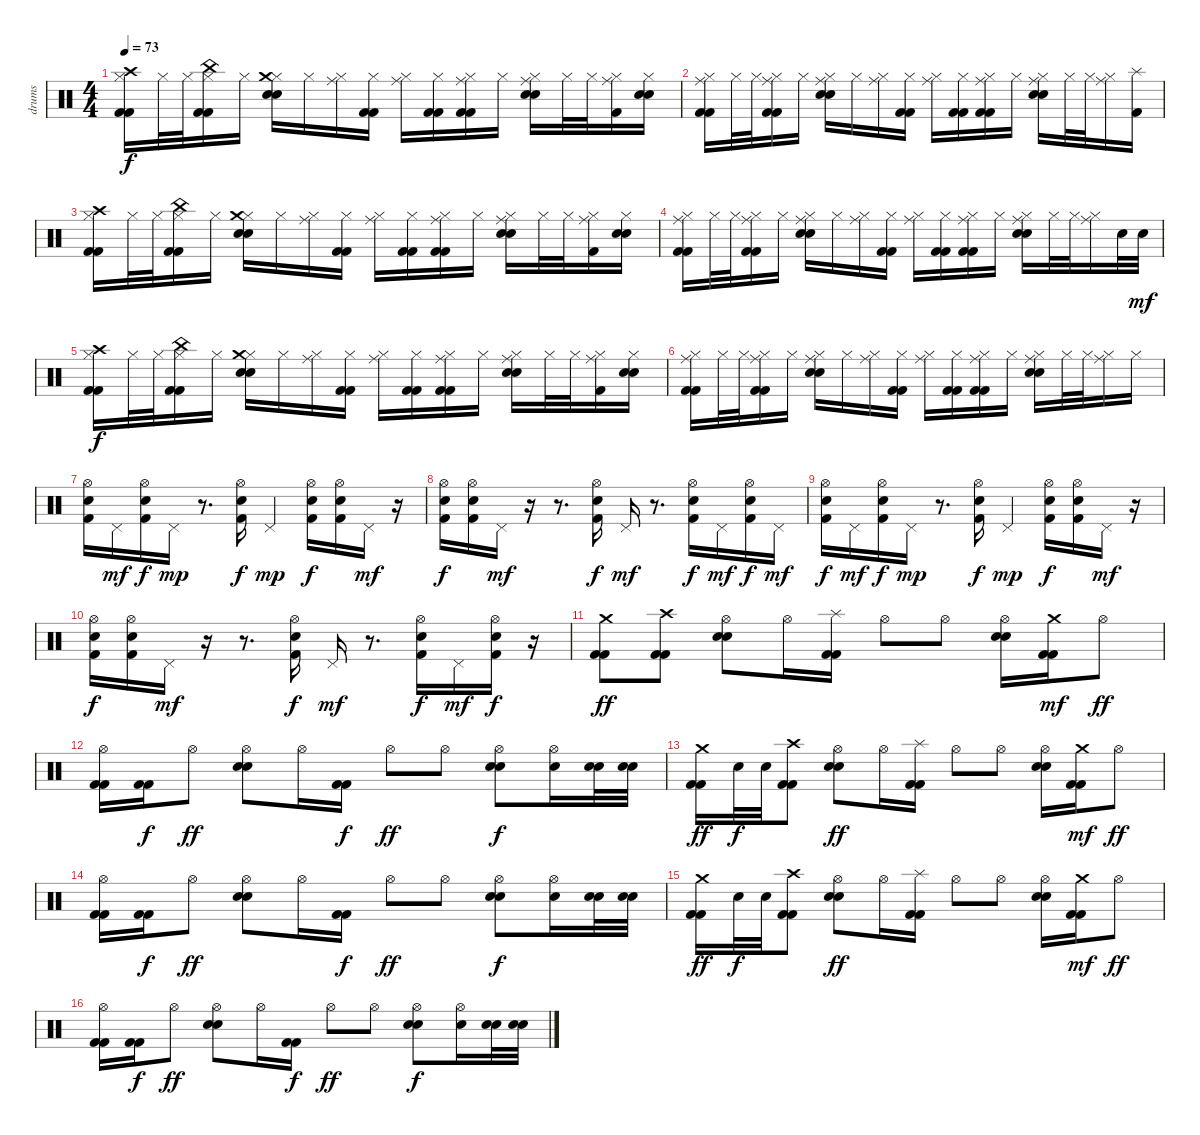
\track ("drums" "drums") {instrument percussion}
\staff {score}
\articulation defaults
\ts (4 4)
\tempo 73
\clef neutral
\ks c
("Hi-Hat (closed)" "Crash high (hit)" "Kick (hit) 2" "Kick (hit) 2").16{dy f} "Hi-Hat (closed)".32 "Hi-Hat (closed)".32 ("Hi-Hat (closed)" "China (hit)" "Kick (hit) 2" "Kick (hit) 2").16 "Hi-Hat (closed)".16 ("Hi-Hat (closed)" "Crash medium (hit)" "Electric Snare (hit)" "Electric Snare (hit)").16 "Hi-Hat (closed)".16 ("Hi-Hat (closed)" "Ride (middle)").16 ("Hi-Hat (closed)" "Kick (hit) 2" "Kick (hit) 2").16 ("Hi-Hat (closed)" "Ride (middle)").16 ("Hi-Hat (closed)" "Kick (hit) 2" "Kick (hit) 2").16 ("Hi-Hat (closed)" "Ride (middle)" "Kick (hit) 2" "Kick (hit) 2").16 "Hi-Hat (closed)".16 ("Hi-Hat (closed)" "Ride (middle)" "Electric Snare (hit)" "Electric Snare (hit)").16 "Hi-Hat (closed)".32 "Hi-Hat (closed)".32 ("Hi-Hat (closed)" "Ride (middle)" "Kick (hit) 2").16 ("Hi-Hat (closed)" "Electric Snare (hit)" "Electric Snare (hit)").16 |
("Hi-Hat (closed)" "Ride (middle)" "Kick (hit) 2" "Kick (hit) 2").16 "Hi-Hat (closed)".32 "Hi-Hat (closed)".32 ("Hi-Hat (closed)" "Ride (middle)" "Kick (hit) 2" "Kick (hit) 2").16 "Hi-Hat (closed)".16 ("Hi-Hat (closed)" "Ride (middle)" "Electric Snare (hit)" "Electric Snare (hit)").16 "Hi-Hat (closed)".16 ("Hi-Hat (closed)" "Ride (middle)").16 ("Hi-Hat (closed)" "Kick (hit) 2" "Kick (hit) 2").16 ("Hi-Hat (closed)" "Ride (middle)").16 ("Hi-Hat (closed)" "Kick (hit) 2" "Kick (hit) 2").16 ("Hi-Hat (closed)" "Ride (middle)" "Kick (hit) 2" "Kick (hit) 2").16 "Hi-Hat (closed)".16 ("Hi-Hat (closed)" "Ride (middle)" "Electric Snare (hit)" "Electric Snare (hit)").16 "Hi-Hat (closed)".32 "Hi-Hat (closed)".32 ("Hi-Hat (closed)" "Ride (middle)").16 ("Splash (hit)" "Kick (hit) 2").16 |
("Hi-Hat (closed)" "Crash high (hit)" "Kick (hit) 2" "Kick (hit) 2").16 "Hi-Hat (closed)".32 "Hi-Hat (closed)".32 ("Hi-Hat (closed)" "China (hit)" "Kick (hit) 2" "Kick (hit) 2").16 "Hi-Hat (closed)".16 ("Hi-Hat (closed)" "Crash medium (hit)" "Electric Snare (hit)" "Electric Snare (hit)").16 "Hi-Hat (closed)".16 ("Hi-Hat (closed)" "Ride (middle)").16 ("Hi-Hat (closed)" "Kick (hit) 2" "Kick (hit) 2").16 ("Hi-Hat (closed)" "Ride (middle)").16 ("Hi-Hat (closed)" "Kick (hit) 2" "Kick (hit) 2").16 ("Hi-Hat (closed)" "Ride (middle)" "Kick (hit) 2" "Kick (hit) 2").16 "Hi-Hat (closed)".16 ("Hi-Hat (closed)" "Ride (middle)" "Electric Snare (hit)" "Electric Snare (hit)").16 "Hi-Hat (closed)".32 "Hi-Hat (closed)".32 ("Hi-Hat (closed)" "Ride (middle)" "Kick (hit) 2").16 ("Hi-Hat (closed)" "Electric Snare (hit)" "Electric Snare (hit)").16 |
("Hi-Hat (closed)" "Ride (middle)" "Kick (hit) 2" "Kick (hit) 2").16 "Hi-Hat (closed)".32 "Hi-Hat (closed)".32 ("Hi-Hat (closed)" "Ride (middle)" "Kick (hit) 2" "Kick (hit) 2").16 "Hi-Hat (closed)".16 ("Hi-Hat (closed)" "Ride (middle)" "Electric Snare (hit)" "Electric Snare (hit)").16 "Hi-Hat (closed)".16 ("Hi-Hat (closed)" "Ride (middle)").16 ("Hi-Hat (closed)" "Kick (hit) 2" "Kick (hit) 2").16 ("Hi-Hat (closed)" "Ride (middle)").16 ("Hi-Hat (closed)" "Kick (hit) 2" "Kick (hit) 2").16 ("Hi-Hat (closed)" "Ride (middle)" "Kick (hit) 2" "Kick (hit) 2").16 "Hi-Hat (closed)".16 ("Hi-Hat (closed)" "Ride (middle)" "Electric Snare (hit)" "Electric Snare (hit)").16 "Hi-Hat (closed)".32 "Hi-Hat (closed)".32 ("Hi-Hat (closed)" "Ride (middle)").16 "Electric Snare (hit)".32 "Electric Snare (hit)".32{dy mf} |
("Hi-Hat (closed)" "Crash high (hit)" "Kick (hit) 2" "Kick (hit) 2").16{dy f} "Hi-Hat (closed)".32 "Hi-Hat (closed)".32 ("Hi-Hat (closed)" "China (hit)" "Kick (hit) 2" "Kick (hit) 2").16 "Hi-Hat (closed)".16 ("Hi-Hat (closed)" "Crash medium (hit)" "Electric Snare (hit)" "Electric Snare (hit)").16 "Hi-Hat (closed)".16 ("Hi-Hat (closed)" "Ride (middle)").16 ("Hi-Hat (closed)" "Kick (hit) 2" "Kick (hit) 2").16 ("Hi-Hat (closed)" "Ride (middle)").16 ("Hi-Hat (closed)" "Kick (hit) 2" "Kick (hit) 2").16 ("Hi-Hat (closed)" "Ride (middle)" "Kick (hit) 2" "Kick (hit) 2").16 "Hi-Hat (closed)".16 ("Hi-Hat (closed)" "Ride (middle)" "Electric Snare (hit)" "Electric Snare (hit)").16 "Hi-Hat (closed)".32 "Hi-Hat (closed)".32 ("Hi-Hat (closed)" "Ride (middle)" "Kick (hit) 2").16 ("Hi-Hat (closed)" "Electric Snare (hit)" "Electric Snare (hit)").16 |
("Hi-Hat (closed)" "Ride (middle)" "Kick (hit) 2" "Kick (hit) 2").16 "Hi-Hat (closed)".32 "Hi-Hat (closed)".32 ("Hi-Hat (closed)" "Ride (middle)" "Kick (hit) 2" "Kick (hit) 2").16 "Hi-Hat (closed)".16 ("Hi-Hat (closed)" "Ride (middle)" "Electric Snare (hit)" "Electric Snare (hit)").16 "Hi-Hat (closed)".16 ("Hi-Hat (closed)" "Ride (middle)").16 ("Hi-Hat (closed)" "Kick (hit) 2" "Kick (hit) 2").16 ("Hi-Hat (closed)" "Ride (middle)").16 ("Hi-Hat (closed)" "Kick (hit) 2" "Kick (hit) 2").16 ("Hi-Hat (closed)" "Ride (middle)" "Kick (hit) 2" "Kick (hit) 2").16 "Hi-Hat (closed)".16 ("Hi-Hat (closed)" "Ride (middle)" "Electric Snare (hit)" "Electric Snare (hit)").16 "Hi-Hat (closed)".32 "Hi-Hat (closed)".32 ("Hi-Hat (closed)" "Ride (middle)").16 "Hi-Hat (closed)".16 |
("Hi-Hat (open)" "Electric Snare (hit)" "Kick (hit) 2").16 "Pedal Hi-Hat (hit)".16{dy mf} ("Hi-Hat (open)" "Electric Snare (hit)" "Kick (hit) 2").16{dy f} "Pedal Hi-Hat (hit)".16{dy mp} r.8{d} ("Hi-Hat (open)" "Electric Snare (hit)" "Kick (hit) 2").16{dy f} "Pedal Hi-Hat (hit)".4{dy mp} ("Hi-Hat (open)" "Electric Snare (hit)" "Kick (hit) 2").16{dy f} ("Hi-Hat (open)" "Electric Snare (hit)" "Kick (hit) 2").16 "Pedal Hi-Hat (hit)".16{dy mf} r.16 |
("Hi-Hat (open)" "Electric Snare (hit)" "Kick (hit) 2").16{dy f} ("Hi-Hat (open)" "Electric Snare (hit)" "Kick (hit) 2").16 "Pedal Hi-Hat (hit)".16{dy mf} r.16 r.8{d} ("Hi-Hat (open)" "Electric Snare (hit)" "Kick (hit) 2").16{dy f} "Pedal Hi-Hat (hit)".16{dy mf} r.8{d} ("Hi-Hat (open)" "Electric Snare (hit)" "Kick (hit) 2").16{dy f} "Pedal Hi-Hat (hit)".16{dy mf} ("Hi-Hat (open)" "Electric Snare (hit)" "Kick (hit) 2").16{dy f} "Pedal Hi-Hat (hit)".16{dy mf} |
("Hi-Hat (open)" "Electric Snare (hit)" "Kick (hit) 2").16{dy f} "Pedal Hi-Hat (hit)".16{dy mf} ("Hi-Hat (open)" "Electric Snare (hit)" "Kick (hit) 2").16{dy f} "Pedal Hi-Hat (hit)".16{dy mp} r.8{d} ("Hi-Hat (open)" "Electric Snare (hit)" "Kick (hit) 2").16{dy f} "Pedal Hi-Hat (hit)".4{dy mp} ("Hi-Hat (open)" "Electric Snare (hit)" "Kick (hit) 2").16{dy f} ("Hi-Hat (open)" "Electric Snare (hit)" "Kick (hit) 2").16 "Pedal Hi-Hat (hit)".16{dy mf} r.16 |
("Hi-Hat (open)" "Electric Snare (hit)" "Kick (hit) 2").16{dy f} ("Hi-Hat (open)" "Electric Snare (hit)" "Kick (hit) 2").16 "Pedal Hi-Hat (hit)".16{dy mf} r.16 r.8{d} ("Hi-Hat (open)" "Electric Snare (hit)" "Kick (hit) 2").16{dy f} "Pedal Hi-Hat (hit)".16{dy mf} r.8{d} ("Hi-Hat (open)" "Electric Snare (hit)" "Kick (hit) 2").16{dy f} "Pedal Hi-Hat (hit)".16{dy mf} ("Hi-Hat (open)" "Electric Snare (hit)" "Kick (hit) 2").16{dy f} r.16 |
("Crash medium (hit)" "Kick (hit) 2" "Kick (hit) 2").8{dy ff} ("Crash high (hit)" "Kick (hit) 2" "Kick (hit) 2").8 ("Hi-Hat (open)" "Electric Snare (hit)" "Electric Snare (hit)").8 "Hi-Hat (open)".16 ("Splash (hit)" "Kick (hit) 2" "Kick (hit) 2").16 "Hi-Hat (open)".8 "Hi-Hat (open)".8 ("Hi-Hat (open)" "Electric Snare (hit)" "Electric Snare (hit)").16 ("Crash medium (hit)" "Kick (hit) 2" "Kick (hit) 2").16{dy mf} "Hi-Hat (open)".8{dy ff} |
("Hi-Hat (open)" "Kick (hit) 2" "Kick (hit) 2").16 ("Kick (hit) 2" "Kick (hit) 2").16{dy f} "Hi-Hat (open)".8{dy ff} ("Hi-Hat (open)" "Electric Snare (hit)" "Electric Snare (hit)").8 "Hi-Hat (open)".16 ("Kick (hit) 2" "Kick (hit) 2").16{dy f} "Hi-Hat (open)".8{dy ff} "Hi-Hat (open)".8 ("Hi-Hat (open)" "Electric Snare (hit)" "Electric Snare (hit)").8{dy f} ("Hi-Hat (open)" "Electric Snare (hit)").16 ("Electric Snare (hit)" "Electric Snare (hit)").32 ("Electric Snare (hit)" "Electric Snare (hit)").32 |
("Crash medium (hit)" "Kick (hit) 2" "Kick (hit) 2").16{dy ff} "Electric Snare (hit)".32{dy f} "Electric Snare (hit)".32 ("Crash high (hit)" "Kick (hit) 2" "Kick (hit) 2").8 ("Hi-Hat (open)" "Electric Snare (hit)" "Electric Snare (hit)").8{dy ff} "Hi-Hat (open)".16 ("Splash (hit)" "Kick (hit) 2" "Kick (hit) 2").16 "Hi-Hat (open)".8 "Hi-Hat (open)".8 ("Hi-Hat (open)" "Electric Snare (hit)" "Electric Snare (hit)").16 ("Crash medium (hit)" "Kick (hit) 2" "Kick (hit) 2").16{dy mf} "Hi-Hat (open)".8{dy ff} |
("Hi-Hat (open)" "Kick (hit) 2" "Kick (hit) 2").16 ("Kick (hit) 2" "Kick (hit) 2").16{dy f} "Hi-Hat (open)".8{dy ff} ("Hi-Hat (open)" "Electric Snare (hit)" "Electric Snare (hit)").8 "Hi-Hat (open)".16 ("Kick (hit) 2" "Kick (hit) 2").16{dy f} "Hi-Hat (open)".8{dy ff} "Hi-Hat (open)".8 ("Hi-Hat (open)" "Electric Snare (hit)" "Electric Snare (hit)").8{dy f} ("Hi-Hat (open)" "Electric Snare (hit)").16 ("Electric Snare (hit)" "Electric Snare (hit)").32 ("Electric Snare (hit)" "Electric Snare (hit)").32 |
("Crash medium (hit)" "Kick (hit) 2" "Kick (hit) 2").16{dy ff} "Electric Snare (hit)".32{dy f} "Electric Snare (hit)".32 ("Crash high (hit)" "Kick (hit) 2" "Kick (hit) 2").8 ("Hi-Hat (open)" "Electric Snare (hit)" "Electric Snare (hit)").8{dy ff} "Hi-Hat (open)".16 ("Splash (hit)" "Kick (hit) 2" "Kick (hit) 2").16 "Hi-Hat (open)".8 "Hi-Hat (open)".8 ("Hi-Hat (open)" "Electric Snare (hit)" "Electric Snare (hit)").16 ("Crash medium (hit)" "Kick (hit) 2" "Kick (hit) 2").16{dy mf} "Hi-Hat (open)".8{dy ff} |
("Hi-Hat (open)" "Kick (hit) 2" "Kick (hit) 2").16 ("Kick (hit) 2" "Kick (hit) 2").16{dy f} "Hi-Hat (open)".8{dy ff} ("Hi-Hat (open)" "Electric Snare (hit)" "Electric Snare (hit)").8 "Hi-Hat (open)".16 ("Kick (hit) 2" "Kick (hit) 2").16{dy f} "Hi-Hat (open)".8{dy ff} "Hi-Hat (open)".8 ("Hi-Hat (open)" "Electric Snare (hit)" "Electric Snare (hit)").8{dy f} ("Hi-Hat (open)" "Electric Snare (hit)").16 ("Electric Snare (hit)" "Electric Snare (hit)").32 ("Electric Snare (hit)" "Electric Snare (hit)").32
